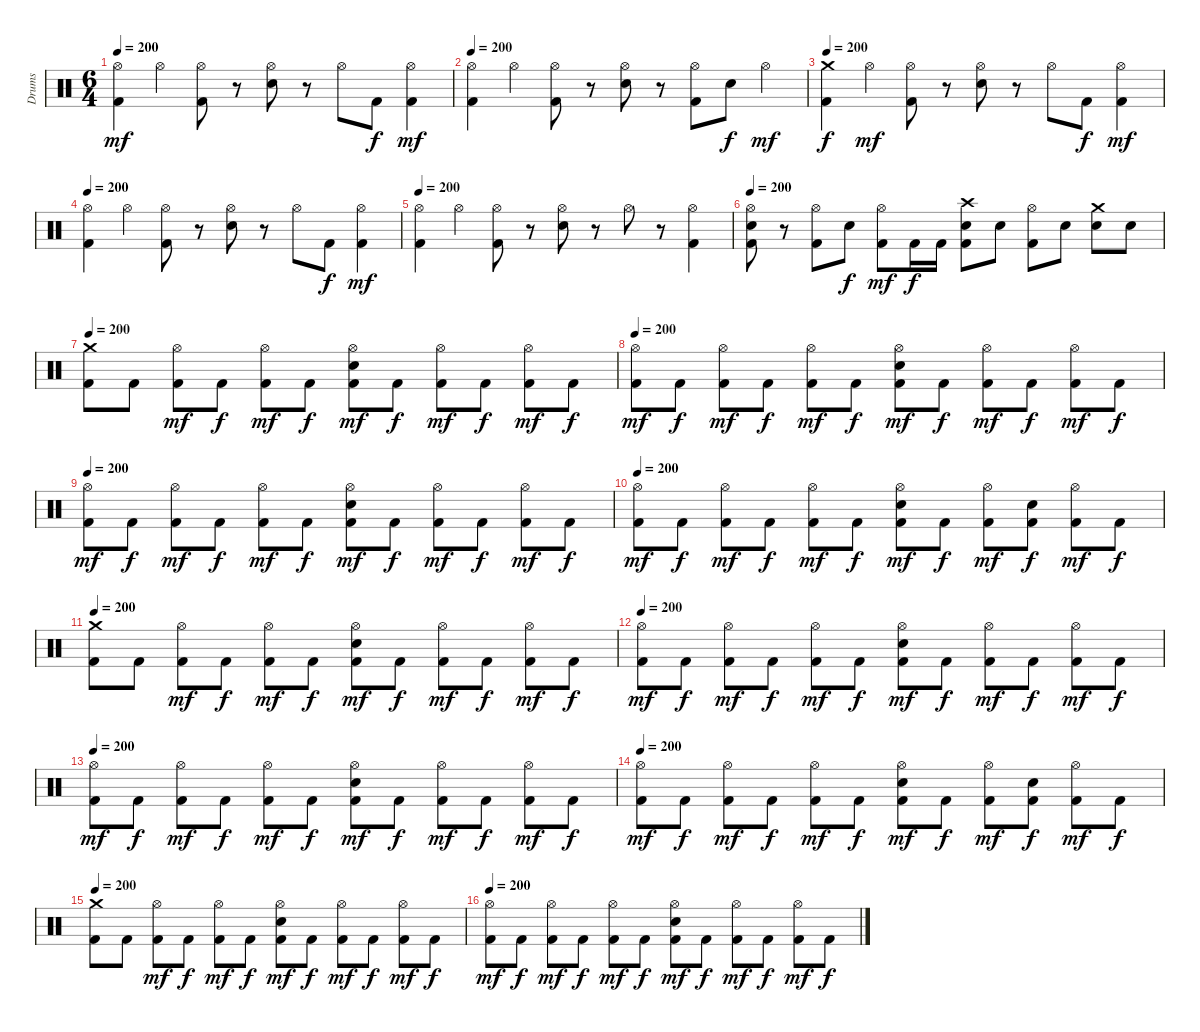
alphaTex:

\track ("Drums" "Drums") {instrument percussion}
\staff {score}
\articulation defaults
\ts (6 4)
\tempo 200
\clef neutral
\ks c
("Hi-Hat (open)" "Kick (hit) 2").4{dy mf} "Hi-Hat (open)".4 ("Hi-Hat (open)" "Kick (hit) 2").8 r.8 ("Hi-Hat (open)" "Electric Snare (hit)").8 r.8 "Hi-Hat (open)".8 "Kick (hit) 2".8{dy f} ("Hi-Hat (open)" "Kick (hit) 2").4{dy mf} |
\tempo 200
("Hi-Hat (open)" "Kick (hit) 2").4 "Hi-Hat (open)".4 ("Hi-Hat (open)" "Kick (hit) 2").8 r.8 ("Hi-Hat (open)" "Electric Snare (hit)").8 r.8 ("Hi-Hat (open)" "Kick (hit) 2").8 "Electric Snare (hit)".8{dy f} "Hi-Hat (open)".4{dy mf} |
\tempo 200
("Crash medium (hit)" "Kick (hit) 2").4{dy f} "Hi-Hat (open)".4{dy mf} ("Hi-Hat (open)" "Kick (hit) 2").8 r.8 ("Hi-Hat (open)" "Electric Snare (hit)").8 r.8 "Hi-Hat (open)".8 "Kick (hit) 2".8{dy f} ("Hi-Hat (open)" "Kick (hit) 2").4{dy mf} |
\tempo 200
("Hi-Hat (open)" "Kick (hit) 2").4 "Hi-Hat (open)".4 ("Hi-Hat (open)" "Kick (hit) 2").8 r.8 ("Hi-Hat (open)" "Electric Snare (hit)").8 r.8 "Hi-Hat (open)".8 "Kick (hit) 2".8{dy f} ("Hi-Hat (open)" "Kick (hit) 2").4{dy mf} |
\tempo 200
("Hi-Hat (open)" "Kick (hit) 2").4 "Hi-Hat (open)".4 ("Hi-Hat (open)" "Kick (hit) 2").8 r.8 ("Hi-Hat (open)" "Electric Snare (hit)").8 r.8 "Hi-Hat (open)".8 r.8 ("Hi-Hat (open)" "Kick (hit) 2").4 |
\tempo 200
("Hi-Hat (open)" "Electric Snare (hit)" "Kick (hit) 2").8 r.8 ("Hi-Hat (open)" "Kick (hit) 2").8 "Electric Snare (hit)".8{dy f} ("Hi-Hat (open)" "Kick (hit) 2").8{dy mf} "Kick (hit) 2".16{dy f} "Kick (hit) 2".16 ("Crash high (hit)" "Electric Snare (hit)" "Kick (hit) 2").8 "Electric Snare (hit)".8 ("Hi-Hat (open)" "Kick (hit) 2").8 "Electric Snare (hit)".8 ("Crash medium (hit)" "Electric Snare (hit)").8 "Electric Snare (hit)".8 |
\tempo 200
("Crash medium (hit)" "Kick (hit) 2").8 "Kick (hit) 2".8 ("Hi-Hat (open)" "Kick (hit) 2").8{dy mf} "Kick (hit) 2".8{dy f} ("Hi-Hat (open)" "Kick (hit) 2").8{dy mf} "Kick (hit) 2".8{dy f} ("Hi-Hat (open)" "Electric Snare (hit)" "Kick (hit) 2").8{dy mf} "Kick (hit) 2".8{dy f} ("Hi-Hat (open)" "Kick (hit) 2").8{dy mf} "Kick (hit) 2".8{dy f} ("Hi-Hat (open)" "Kick (hit) 2").8{dy mf} "Kick (hit) 2".8{dy f} |
\tempo 200
("Hi-Hat (open)" "Kick (hit) 2").8{dy mf} "Kick (hit) 2".8{dy f} ("Hi-Hat (open)" "Kick (hit) 2").8{dy mf} "Kick (hit) 2".8{dy f} ("Hi-Hat (open)" "Kick (hit) 2").8{dy mf} "Kick (hit) 2".8{dy f} ("Hi-Hat (open)" "Electric Snare (hit)" "Kick (hit) 2").8{dy mf} "Kick (hit) 2".8{dy f} ("Hi-Hat (open)" "Kick (hit) 2").8{dy mf} "Kick (hit) 2".8{dy f} ("Hi-Hat (open)" "Kick (hit) 2").8{dy mf} "Kick (hit) 2".8{dy f} |
\tempo 200
("Hi-Hat (open)" "Kick (hit) 2").8{dy mf} "Kick (hit) 2".8{dy f} ("Hi-Hat (open)" "Kick (hit) 2").8{dy mf} "Kick (hit) 2".8{dy f} ("Hi-Hat (open)" "Kick (hit) 2").8{dy mf} "Kick (hit) 2".8{dy f} ("Hi-Hat (open)" "Electric Snare (hit)" "Kick (hit) 2").8{dy mf} "Kick (hit) 2".8{dy f} ("Hi-Hat (open)" "Kick (hit) 2").8{dy mf} "Kick (hit) 2".8{dy f} ("Hi-Hat (open)" "Kick (hit) 2").8{dy mf} "Kick (hit) 2".8{dy f} |
\tempo 200
("Hi-Hat (open)" "Kick (hit) 2").8{dy mf} "Kick (hit) 2".8{dy f} ("Hi-Hat (open)" "Kick (hit) 2").8{dy mf} "Kick (hit) 2".8{dy f} ("Hi-Hat (open)" "Kick (hit) 2").8{dy mf} "Kick (hit) 2".8{dy f} ("Hi-Hat (open)" "Electric Snare (hit)" "Kick (hit) 2").8{dy mf} "Kick (hit) 2".8{dy f} ("Hi-Hat (open)" "Kick (hit) 2").8{dy mf} ("Electric Snare (hit)" "Kick (hit) 2").8{dy f} ("Hi-Hat (open)" "Kick (hit) 2").8{dy mf} "Kick (hit) 2".8{dy f} |
\tempo 200
("Crash medium (hit)" "Kick (hit) 2").8 "Kick (hit) 2".8 ("Hi-Hat (open)" "Kick (hit) 2").8{dy mf} "Kick (hit) 2".8{dy f} ("Hi-Hat (open)" "Kick (hit) 2").8{dy mf} "Kick (hit) 2".8{dy f} ("Hi-Hat (open)" "Electric Snare (hit)" "Kick (hit) 2").8{dy mf} "Kick (hit) 2".8{dy f} ("Hi-Hat (open)" "Kick (hit) 2").8{dy mf} "Kick (hit) 2".8{dy f} ("Hi-Hat (open)" "Kick (hit) 2").8{dy mf} "Kick (hit) 2".8{dy f} |
\tempo 200
("Hi-Hat (open)" "Kick (hit) 2").8{dy mf} "Kick (hit) 2".8{dy f} ("Hi-Hat (open)" "Kick (hit) 2").8{dy mf} "Kick (hit) 2".8{dy f} ("Hi-Hat (open)" "Kick (hit) 2").8{dy mf} "Kick (hit) 2".8{dy f} ("Hi-Hat (open)" "Electric Snare (hit)" "Kick (hit) 2").8{dy mf} "Kick (hit) 2".8{dy f} ("Hi-Hat (open)" "Kick (hit) 2").8{dy mf} "Kick (hit) 2".8{dy f} ("Hi-Hat (open)" "Kick (hit) 2").8{dy mf} "Kick (hit) 2".8{dy f} |
\tempo 200
("Hi-Hat (open)" "Kick (hit) 2").8{dy mf} "Kick (hit) 2".8{dy f} ("Hi-Hat (open)" "Kick (hit) 2").8{dy mf} "Kick (hit) 2".8{dy f} ("Hi-Hat (open)" "Kick (hit) 2").8{dy mf} "Kick (hit) 2".8{dy f} ("Hi-Hat (open)" "Electric Snare (hit)" "Kick (hit) 2").8{dy mf} "Kick (hit) 2".8{dy f} ("Hi-Hat (open)" "Kick (hit) 2").8{dy mf} "Kick (hit) 2".8{dy f} ("Hi-Hat (open)" "Kick (hit) 2").8{dy mf} "Kick (hit) 2".8{dy f} |
\tempo 200
("Hi-Hat (open)" "Kick (hit) 2").8{dy mf} "Kick (hit) 2".8{dy f} ("Hi-Hat (open)" "Kick (hit) 2").8{dy mf} "Kick (hit) 2".8{dy f} ("Hi-Hat (open)" "Kick (hit) 2").8{dy mf} "Kick (hit) 2".8{dy f} ("Hi-Hat (open)" "Electric Snare (hit)" "Kick (hit) 2").8{dy mf} "Kick (hit) 2".8{dy f} ("Hi-Hat (open)" "Kick (hit) 2").8{dy mf} ("Electric Snare (hit)" "Kick (hit) 2").8{dy f} ("Hi-Hat (open)" "Kick (hit) 2").8{dy mf} "Kick (hit) 2".8{dy f} |
\tempo 200
("Crash medium (hit)" "Kick (hit) 2").8 "Kick (hit) 2".8 ("Hi-Hat (open)" "Kick (hit) 2").8{dy mf} "Kick (hit) 2".8{dy f} ("Hi-Hat (open)" "Kick (hit) 2").8{dy mf} "Kick (hit) 2".8{dy f} ("Hi-Hat (open)" "Electric Snare (hit)" "Kick (hit) 2").8{dy mf} "Kick (hit) 2".8{dy f} ("Hi-Hat (open)" "Kick (hit) 2").8{dy mf} "Kick (hit) 2".8{dy f} ("Hi-Hat (open)" "Kick (hit) 2").8{dy mf} "Kick (hit) 2".8{dy f} |
\tempo 200
("Hi-Hat (open)" "Kick (hit) 2").8{dy mf} "Kick (hit) 2".8{dy f} ("Hi-Hat (open)" "Kick (hit) 2").8{dy mf} "Kick (hit) 2".8{dy f} ("Hi-Hat (open)" "Kick (hit) 2").8{dy mf} "Kick (hit) 2".8{dy f} ("Hi-Hat (open)" "Electric Snare (hit)" "Kick (hit) 2").8{dy mf} "Kick (hit) 2".8{dy f} ("Hi-Hat (open)" "Kick (hit) 2").8{dy mf} "Kick (hit) 2".8{dy f} ("Hi-Hat (open)" "Kick (hit) 2").8{dy mf} "Kick (hit) 2".8{dy f}
